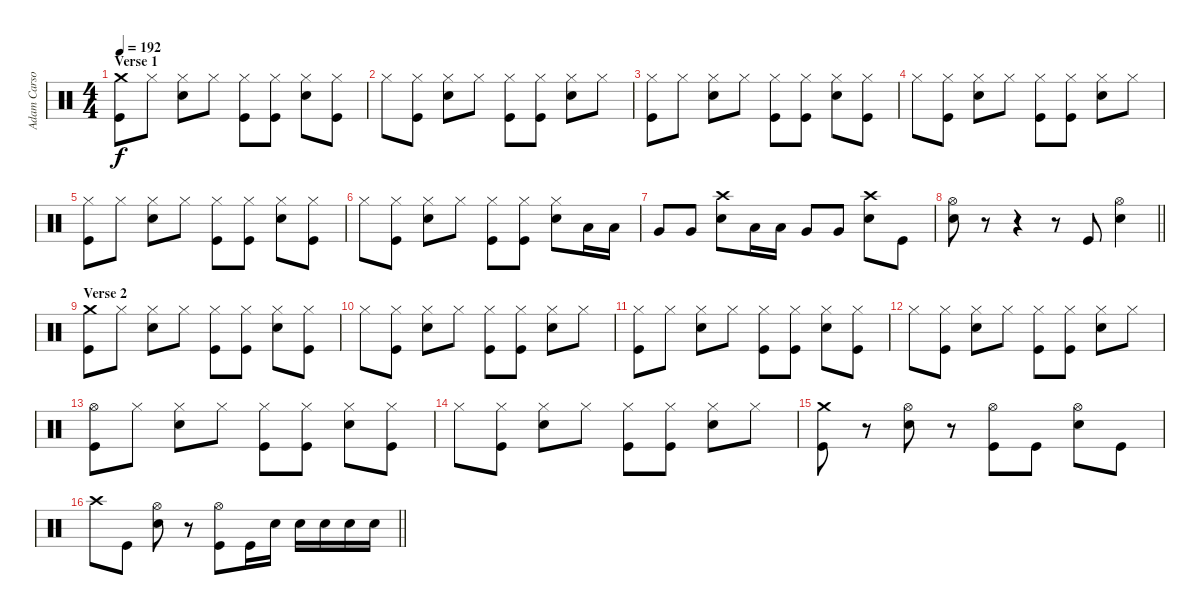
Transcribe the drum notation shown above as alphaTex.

\track ("Adam Carson" "Adam Carso") {instrument percussion}
\staff {score}
\articulation defaults
\ts (4 4)
\section ("" "Verse 1")
\tempo 192
\clef neutral
\ks c
("Crash medium (hit)" "Kick (hit)").8{dy f} "Hi-Hat (closed)".8 ("Hi-Hat (closed)" "Electric Snare (hit)").8 "Hi-Hat (closed)".8 ("Hi-Hat (closed)" "Kick (hit)").8 ("Hi-Hat (closed)" "Kick (hit)").8 ("Hi-Hat (closed)" "Electric Snare (hit)").8 ("Hi-Hat (closed)" "Kick (hit)").8 |
"Hi-Hat (closed)".8 ("Hi-Hat (closed)" "Kick (hit)").8 ("Hi-Hat (closed)" "Electric Snare (hit)").8 "Hi-Hat (closed)".8 ("Hi-Hat (closed)" "Kick (hit)").8 ("Hi-Hat (closed)" "Kick (hit)").8 ("Hi-Hat (closed)" "Electric Snare (hit)").8 "Hi-Hat (closed)".8 |
("Hi-Hat (closed)" "Kick (hit)").8 "Hi-Hat (closed)".8 ("Hi-Hat (closed)" "Electric Snare (hit)").8 "Hi-Hat (closed)".8 ("Hi-Hat (closed)" "Kick (hit)").8 ("Hi-Hat (closed)" "Kick (hit)").8 ("Hi-Hat (closed)" "Electric Snare (hit)").8 ("Hi-Hat (closed)" "Kick (hit)").8 |
"Hi-Hat (closed)".8 ("Hi-Hat (closed)" "Kick (hit)").8 ("Hi-Hat (closed)" "Electric Snare (hit)").8 "Hi-Hat (closed)".8 ("Hi-Hat (closed)" "Kick (hit)").8 ("Hi-Hat (closed)" "Kick (hit)").8 ("Hi-Hat (closed)" "Electric Snare (hit)").8 "Hi-Hat (closed)".8 |
("Hi-Hat (closed)" "Kick (hit)").8 "Hi-Hat (closed)".8 ("Hi-Hat (closed)" "Electric Snare (hit)").8 "Hi-Hat (closed)".8 ("Hi-Hat (closed)" "Kick (hit)").8 ("Hi-Hat (closed)" "Kick (hit)").8 ("Hi-Hat (closed)" "Electric Snare (hit)").8 ("Hi-Hat (closed)" "Kick (hit)").8 |
"Hi-Hat (closed)".8 ("Hi-Hat (closed)" "Kick (hit)").8 ("Hi-Hat (closed)" "Electric Snare (hit)").8 "Hi-Hat (closed)".8 ("Hi-Hat (closed)" "Kick (hit)").8 ("Hi-Hat (closed)" "Kick (hit)").8 ("Hi-Hat (closed)" "Electric Snare (hit)").8 "Low Tom (hit)".16 "Low Tom (hit)".16 |
"Very Low Tom (hit)".8 "Very Low Tom (hit)".8 ("Crash high (hit)" "Electric Snare (hit)").8 "Low Tom (hit)".16 "Low Tom (hit)".16 "Very Low Tom (hit)".8 "Very Low Tom (hit)".8 ("Crash high (hit)" "Electric Snare (hit)").8 "Kick (hit)".8 |
\barLineRight lightlight
("Hi-Hat (open)" "Electric Snare (hit)").8 r.8 r.4 r.8 "Kick (hit)".8 ("Hi-Hat (open)" "Electric Snare (hit)").4 |
\section ("" "Verse 2")
("Crash medium (hit)" "Kick (hit)").8 "Hi-Hat (closed)".8 ("Hi-Hat (closed)" "Electric Snare (hit)").8 "Hi-Hat (closed)".8 ("Hi-Hat (closed)" "Kick (hit)").8 ("Hi-Hat (closed)" "Kick (hit)").8 ("Hi-Hat (closed)" "Electric Snare (hit)").8 ("Hi-Hat (closed)" "Kick (hit)").8 |
"Hi-Hat (closed)".8 ("Hi-Hat (closed)" "Kick (hit)").8 ("Hi-Hat (closed)" "Electric Snare (hit)").8 "Hi-Hat (closed)".8 ("Hi-Hat (closed)" "Kick (hit)").8 ("Hi-Hat (closed)" "Kick (hit)").8 ("Hi-Hat (closed)" "Electric Snare (hit)").8 "Hi-Hat (closed)".8 |
("Hi-Hat (closed)" "Kick (hit)").8 "Hi-Hat (closed)".8 ("Hi-Hat (closed)" "Electric Snare (hit)").8 "Hi-Hat (closed)".8 ("Hi-Hat (closed)" "Kick (hit)").8 ("Hi-Hat (closed)" "Kick (hit)").8 ("Hi-Hat (closed)" "Electric Snare (hit)").8 ("Hi-Hat (closed)" "Kick (hit)").8 |
"Hi-Hat (closed)".8 ("Hi-Hat (closed)" "Kick (hit)").8 ("Hi-Hat (closed)" "Electric Snare (hit)").8 "Hi-Hat (closed)".8 ("Hi-Hat (closed)" "Kick (hit)").8 ("Hi-Hat (closed)" "Kick (hit)").8 ("Hi-Hat (closed)" "Electric Snare (hit)").8 "Hi-Hat (closed)".8 |
("Hi-Hat (open)" "Kick (hit)").8 "Hi-Hat (closed)".8 ("Hi-Hat (closed)" "Electric Snare (hit)").8 "Hi-Hat (closed)".8 ("Hi-Hat (closed)" "Kick (hit)").8 ("Hi-Hat (closed)" "Kick (hit)").8 ("Hi-Hat (closed)" "Electric Snare (hit)").8 ("Hi-Hat (closed)" "Kick (hit)").8 |
"Hi-Hat (closed)".8 ("Hi-Hat (closed)" "Kick (hit)").8 ("Hi-Hat (closed)" "Electric Snare (hit)").8 "Hi-Hat (closed)".8 ("Hi-Hat (closed)" "Kick (hit)").8 ("Hi-Hat (closed)" "Kick (hit)").8 ("Hi-Hat (closed)" "Electric Snare (hit)").8 "Hi-Hat (closed)".8 |
("Crash medium (hit)" "Kick (hit)").8 r.8 ("Hi-Hat (open)" "Electric Snare (hit)").8 r.8 ("Hi-Hat (open)" "Kick (hit)").8 "Kick (hit)".8 ("Hi-Hat (open)" "Electric Snare (hit)").8 "Kick (hit)".8 |
\barLineRight lightlight "Crash high (hit)".8 "Kick (hit)".8
("Hi-Hat (open)" "Electric Snare (hit)").8 r.8 ("Hi-Hat (open)" "Kick (hit)").8 "Kick (hit)".16 "Electric Snare (hit)".16 "Electric Snare (hit)".16 "Electric Snare (hit)".16 "Electric Snare (hit)".16 "Electric Snare (hit)".16
